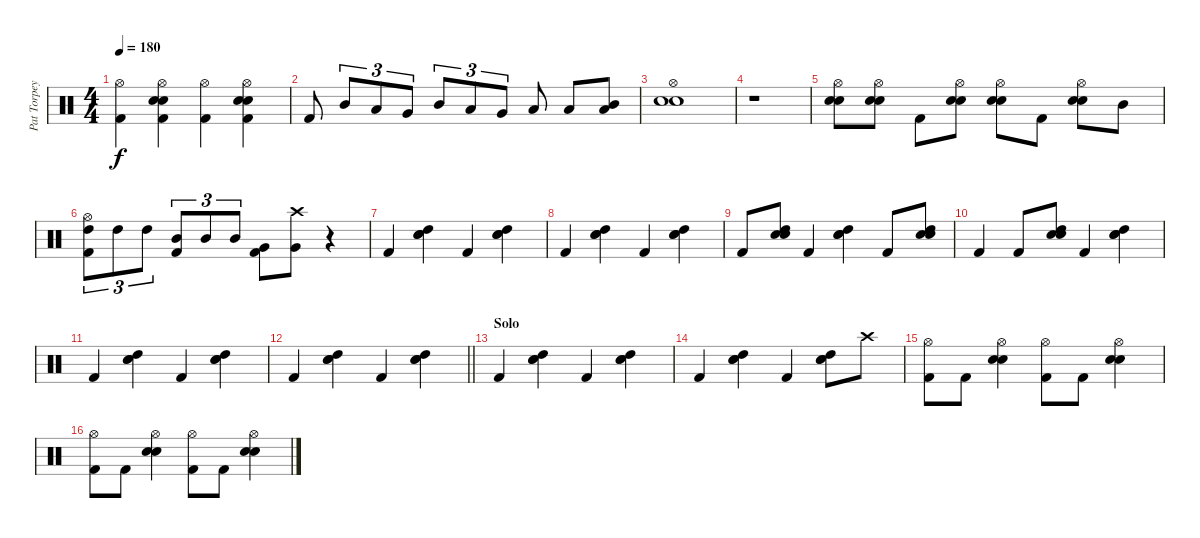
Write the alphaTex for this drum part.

\track ("Pat Torpey" "Pat Torpey") {instrument percussion}
\staff {score}
\articulation defaults
\ts (4 4)
\tempo 180
\clef neutral
\ks c
("Hi-Hat (open)" "Kick (hit) 2").4{dy f} ("Hi-Hat (open)" "Snare (hit) 2" "Electric Snare (hit)" "Kick (hit) 2").4 ("Hi-Hat (open)" "Kick (hit) 2").4 ("Hi-Hat (open)" "Snare (hit) 2" "Electric Snare (hit)" "Kick (hit) 2").4 |
"Kick (hit) 2".8 "Mid Tom (hit)".8{tu (3 2)} "Low Tom (hit)".8{tu (3 2)} "Very Low Tom (hit)".8{tu (3 2)} "Mid Tom (hit)".8{tu (3 2)} "Low Tom (hit)".8{tu (3 2)} "Very Low Tom (hit)".8{tu (3 2)} "Low Tom (hit)".8 "Low Tom (hit)".8 ("Mid Tom (hit)" "Low Tom (hit)").8 |
("Snare (hit) 2" "Electric Snare (hit)" "Hi-Hat (open)").1 |
r.1 |
("Snare (hit) 2" "Electric Snare (hit)" "Hi-Hat (open)").8 ("Snare (hit) 2" "Electric Snare (hit)" "Hi-Hat (open)").8 "Kick (hit) 2".8 ("Snare (hit) 2" "Electric Snare (hit)" "Hi-Hat (open)").8 ("Snare (hit) 2" "Electric Snare (hit)" "Hi-Hat (open)").8 "Kick (hit) 2".8 ("Snare (hit) 2" "Electric Snare (hit)" "Hi-Hat (open)").8 "Mid Tom (hit)".8 |
("High Tom (hit)" "Hi-Hat (open)" "Kick (hit) 2").8{tu (3 2)} "High Tom (hit)".8{tu (3 2)} "High Tom (hit)".8{tu (3 2)} ("Mid Tom (hit)" "Kick (hit) 2").8{tu (3 2)} "Mid Tom (hit)".8{tu (3 2)} "Mid Tom (hit)".8{tu (3 2)} ("Very Low Tom (hit)" "Kick (hit) 2").8 ("Crash high (hit)" "Very Low Tom (hit)").8 r.4 |
"Kick (hit) 2".4 ("High Tom (hit)" "Snare (hit) 2" "Electric Snare (hit)").4 "Kick (hit) 2".4 ("High Tom (hit)" "Snare (hit) 2" "Electric Snare (hit)").4 |
"Kick (hit) 2".4 ("High Tom (hit)" "Snare (hit) 2" "Electric Snare (hit)").4 "Kick (hit) 2".4 ("High Tom (hit)" "Snare (hit) 2" "Electric Snare (hit)").4 |
"Kick (hit) 2".8 ("High Tom (hit)" "Snare (hit) 2" "Electric Snare (hit)").8 "Kick (hit) 2".4 ("High Tom (hit)" "Snare (hit) 2" "Electric Snare (hit)").4 "Kick (hit) 2".8 ("High Tom (hit)" "Snare (hit) 2" "Electric Snare (hit)").8 |
"Kick (hit) 2".4 "Kick (hit) 2".8 ("High Tom (hit)" "Snare (hit) 2" "Electric Snare (hit)").8 "Kick (hit) 2".4 ("High Tom (hit)" "Snare (hit) 2" "Electric Snare (hit)").4 |
"Kick (hit) 2".4 ("High Tom (hit)" "Snare (hit) 2" "Electric Snare (hit)").4 "Kick (hit) 2".4 ("High Tom (hit)" "Snare (hit) 2" "Electric Snare (hit)").4 |
\barLineRight lightlight "Kick (hit) 2".4
("High Tom (hit)" "Snare (hit) 2" "Electric Snare (hit)").4 "Kick (hit) 2".4 ("High Tom (hit)" "Snare (hit) 2" "Electric Snare (hit)").4 |
\section ("" "Solo")
"Kick (hit) 2".4 ("High Tom (hit)" "Snare (hit) 2" "Electric Snare (hit)").4 "Kick (hit) 2".4 ("High Tom (hit)" "Snare (hit) 2" "Electric Snare (hit)").4 |
"Kick (hit) 2".4 ("High Tom (hit)" "Snare (hit) 2" "Electric Snare (hit)").4 "Kick (hit) 2".4 ("High Tom (hit)" "Snare (hit) 2" "Electric Snare (hit)").8 "Crash high (hit)".8 |
("Hi-Hat (open)" "Kick (hit) 2").8 "Kick (hit) 2".8 ("Hi-Hat (open)" "Snare (hit) 2" "Electric Snare (hit)").4 ("Hi-Hat (open)" "Kick (hit) 2").8 "Kick (hit) 2".8 ("Hi-Hat (open)" "Snare (hit) 2" "Electric Snare (hit)").4 |
("Hi-Hat (open)" "Kick (hit) 2").8 "Kick (hit) 2".8 ("Hi-Hat (open)" "Snare (hit) 2" "Electric Snare (hit)").4 ("Hi-Hat (open)" "Kick (hit) 2").8 "Kick (hit) 2".8 ("Hi-Hat (open)" "Snare (hit) 2" "Electric Snare (hit)").4
